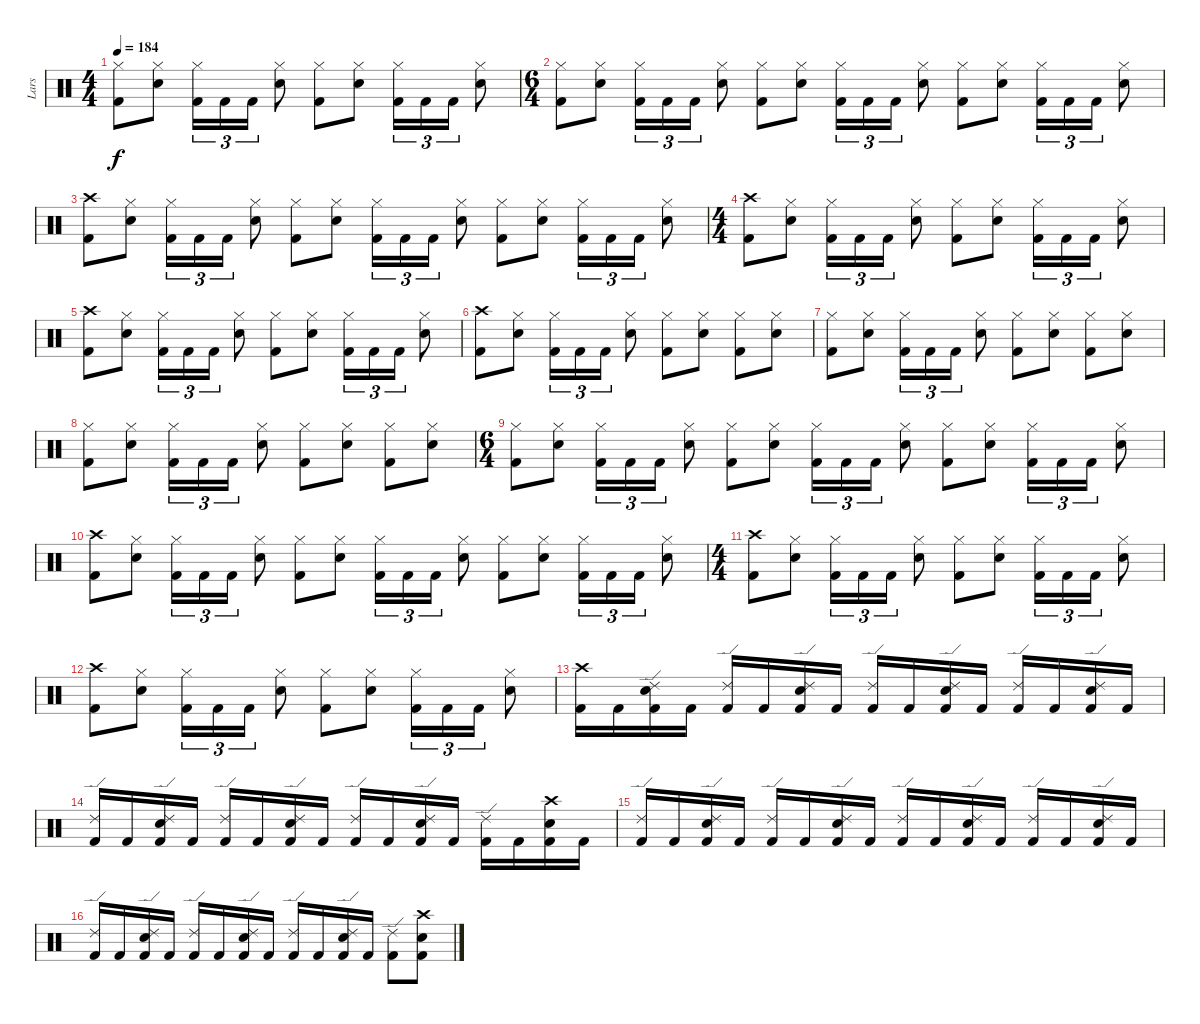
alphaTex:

\track ("Lars" "Lars") {instrument percussion}
\staff {score}
\articulation defaults
\ts (4 4)
\tempo 184
\clef neutral
\ks c
("Hi-Hat (closed)" "Kick (hit) 2").8{dy f} ("Hi-Hat (closed)" "Snare (hit) 2").8 ("Hi-Hat (closed)" "Kick (hit) 2").16{tu (3 2)} "Kick (hit) 2".16{tu (3 2)} "Kick (hit) 2".16{tu (3 2)} ("Hi-Hat (closed)" "Snare (hit) 2").8 ("Hi-Hat (closed)" "Kick (hit) 2").8 ("Hi-Hat (closed)" "Snare (hit) 2").8 ("Hi-Hat (closed)" "Kick (hit) 2").16{tu (3 2)} "Kick (hit) 2".16{tu (3 2)} "Kick (hit) 2".16{tu (3 2)} ("Hi-Hat (closed)" "Snare (hit) 2").8 |
\ts (6 4)
("Hi-Hat (closed)" "Kick (hit) 2").8 ("Hi-Hat (closed)" "Snare (hit) 2").8 ("Hi-Hat (closed)" "Kick (hit) 2").16{tu (3 2)} "Kick (hit) 2".16{tu (3 2)} "Kick (hit) 2".16{tu (3 2)} ("Hi-Hat (closed)" "Snare (hit) 2").8 ("Hi-Hat (closed)" "Kick (hit) 2").8 ("Hi-Hat (closed)" "Snare (hit) 2").8 ("Hi-Hat (closed)" "Kick (hit) 2").16{tu (3 2)} "Kick (hit) 2".16{tu (3 2)} "Kick (hit) 2".16{tu (3 2)} ("Hi-Hat (closed)" "Snare (hit) 2").8 ("Hi-Hat (closed)" "Kick (hit) 2").8 ("Hi-Hat (closed)" "Snare (hit) 2").8 ("Hi-Hat (closed)" "Kick (hit) 2").16{tu (3 2)} "Kick (hit) 2".16{tu (3 2)} "Kick (hit) 2".16{tu (3 2)} ("Hi-Hat (closed)" "Snare (hit) 2").8 |
("Crash high (hit)" "Kick (hit) 2").8 ("Hi-Hat (closed)" "Snare (hit) 2").8 ("Hi-Hat (closed)" "Kick (hit) 2").16{tu (3 2)} "Kick (hit) 2".16{tu (3 2)} "Kick (hit) 2".16{tu (3 2)} ("Hi-Hat (closed)" "Snare (hit) 2").8 ("Hi-Hat (closed)" "Kick (hit) 2").8 ("Hi-Hat (closed)" "Snare (hit) 2").8 ("Hi-Hat (closed)" "Kick (hit) 2").16{tu (3 2)} "Kick (hit) 2".16{tu (3 2)} "Kick (hit) 2".16{tu (3 2)} ("Hi-Hat (closed)" "Snare (hit) 2").8 ("Hi-Hat (closed)" "Kick (hit) 2").8 ("Hi-Hat (closed)" "Snare (hit) 2").8 ("Hi-Hat (closed)" "Kick (hit) 2").16{tu (3 2)} "Kick (hit) 2".16{tu (3 2)} "Kick (hit) 2".16{tu (3 2)} ("Hi-Hat (closed)" "Snare (hit) 2").8 |
\ts (4 4)
("Crash high (hit)" "Kick (hit) 2").8 ("Hi-Hat (closed)" "Snare (hit) 2").8 ("Hi-Hat (closed)" "Kick (hit) 2").16{tu (3 2)} "Kick (hit) 2".16{tu (3 2)} "Kick (hit) 2".16{tu (3 2)} ("Hi-Hat (closed)" "Snare (hit) 2").8 ("Hi-Hat (closed)" "Kick (hit) 2").8 ("Hi-Hat (closed)" "Snare (hit) 2").8 ("Hi-Hat (closed)" "Kick (hit) 2").16{tu (3 2)} "Kick (hit) 2".16{tu (3 2)} "Kick (hit) 2".16{tu (3 2)} ("Hi-Hat (closed)" "Snare (hit) 2").8 |
("Crash high (hit)" "Kick (hit) 2").8 ("Hi-Hat (closed)" "Snare (hit) 2").8 ("Hi-Hat (closed)" "Kick (hit) 2").16{tu (3 2)} "Kick (hit) 2".16{tu (3 2)} "Kick (hit) 2".16{tu (3 2)} ("Hi-Hat (closed)" "Snare (hit) 2").8 ("Hi-Hat (closed)" "Kick (hit) 2").8 ("Hi-Hat (closed)" "Snare (hit) 2").8 ("Hi-Hat (closed)" "Kick (hit) 2").16{tu (3 2)} "Kick (hit) 2".16{tu (3 2)} "Kick (hit) 2".16{tu (3 2)} ("Hi-Hat (closed)" "Snare (hit) 2").8 |
("Crash high (hit)" "Kick (hit) 2").8 ("Hi-Hat (closed)" "Snare (hit) 2").8 ("Hi-Hat (closed)" "Kick (hit) 2").16{tu (3 2)} "Kick (hit) 2".16{tu (3 2)} "Kick (hit) 2".16{tu (3 2)} ("Hi-Hat (closed)" "Snare (hit) 2").8 ("Hi-Hat (closed)" "Kick (hit) 2").8 ("Hi-Hat (closed)" "Snare (hit) 2").8 ("Hi-Hat (closed)" "Kick (hit) 2").8 ("Hi-Hat (closed)" "Snare (hit) 2").8 |
("Hi-Hat (closed)" "Kick (hit) 2").8 ("Hi-Hat (closed)" "Snare (hit) 2").8 ("Hi-Hat (closed)" "Kick (hit) 2").16{tu (3 2)} "Kick (hit) 2".16{tu (3 2)} "Kick (hit) 2".16{tu (3 2)} ("Hi-Hat (closed)" "Snare (hit) 2").8 ("Hi-Hat (closed)" "Kick (hit) 2").8 ("Hi-Hat (closed)" "Snare (hit) 2").8 ("Hi-Hat (closed)" "Kick (hit) 2").8 ("Hi-Hat (closed)" "Snare (hit) 2").8 |
("Hi-Hat (closed)" "Kick (hit) 2").8 ("Hi-Hat (closed)" "Snare (hit) 2").8 ("Hi-Hat (closed)" "Kick (hit) 2").16{tu (3 2)} "Kick (hit) 2".16{tu (3 2)} "Kick (hit) 2".16{tu (3 2)} ("Hi-Hat (closed)" "Snare (hit) 2").8 ("Hi-Hat (closed)" "Kick (hit) 2").8 ("Hi-Hat (closed)" "Snare (hit) 2").8 ("Hi-Hat (closed)" "Kick (hit) 2").8 ("Hi-Hat (closed)" "Snare (hit) 2").8 |
\ts (6 4)
("Hi-Hat (closed)" "Kick (hit) 2").8 ("Hi-Hat (closed)" "Snare (hit) 2").8 ("Hi-Hat (closed)" "Kick (hit) 2").16{tu (3 2)} "Kick (hit) 2".16{tu (3 2)} "Kick (hit) 2".16{tu (3 2)} ("Hi-Hat (closed)" "Snare (hit) 2").8 ("Hi-Hat (closed)" "Kick (hit) 2").8 ("Hi-Hat (closed)" "Snare (hit) 2").8 ("Hi-Hat (closed)" "Kick (hit) 2").16{tu (3 2)} "Kick (hit) 2".16{tu (3 2)} "Kick (hit) 2".16{tu (3 2)} ("Hi-Hat (closed)" "Snare (hit) 2").8 ("Hi-Hat (closed)" "Kick (hit) 2").8 ("Hi-Hat (closed)" "Snare (hit) 2").8 ("Hi-Hat (closed)" "Kick (hit) 2").16{tu (3 2)} "Kick (hit) 2".16{tu (3 2)} "Kick (hit) 2".16{tu (3 2)} ("Hi-Hat (closed)" "Snare (hit) 2").8 |
("Crash high (hit)" "Kick (hit) 2").8 ("Hi-Hat (closed)" "Snare (hit) 2").8 ("Hi-Hat (closed)" "Kick (hit) 2").16{tu (3 2)} "Kick (hit) 2".16{tu (3 2)} "Kick (hit) 2".16{tu (3 2)} ("Hi-Hat (closed)" "Snare (hit) 2").8 ("Hi-Hat (closed)" "Kick (hit) 2").8 ("Hi-Hat (closed)" "Snare (hit) 2").8 ("Hi-Hat (closed)" "Kick (hit) 2").16{tu (3 2)} "Kick (hit) 2".16{tu (3 2)} "Kick (hit) 2".16{tu (3 2)} ("Hi-Hat (closed)" "Snare (hit) 2").8 ("Hi-Hat (closed)" "Kick (hit) 2").8 ("Hi-Hat (closed)" "Snare (hit) 2").8 ("Hi-Hat (closed)" "Kick (hit) 2").16{tu (3 2)} "Kick (hit) 2".16{tu (3 2)} "Kick (hit) 2".16{tu (3 2)} ("Hi-Hat (closed)" "Snare (hit) 2").8 |
\ts (4 4)
("Crash high (hit)" "Kick (hit) 2").8 ("Hi-Hat (closed)" "Snare (hit) 2").8 ("Hi-Hat (closed)" "Kick (hit) 2").16{tu (3 2)} "Kick (hit) 2".16{tu (3 2)} "Kick (hit) 2".16{tu (3 2)} ("Hi-Hat (closed)" "Snare (hit) 2").8 ("Hi-Hat (closed)" "Kick (hit) 2").8 ("Hi-Hat (closed)" "Snare (hit) 2").8 ("Hi-Hat (closed)" "Kick (hit) 2").16{tu (3 2)} "Kick (hit) 2".16{tu (3 2)} "Kick (hit) 2".16{tu (3 2)} ("Hi-Hat (closed)" "Snare (hit) 2").8 |
("Crash high (hit)" "Kick (hit) 2").8 ("Hi-Hat (closed)" "Snare (hit) 2").8 ("Hi-Hat (closed)" "Kick (hit) 2").16{tu (3 2)} "Kick (hit) 2".16{tu (3 2)} "Kick (hit) 2".16{tu (3 2)} ("Hi-Hat (closed)" "Snare (hit) 2").8 ("Hi-Hat (closed)" "Kick (hit) 2").8 ("Hi-Hat (closed)" "Snare (hit) 2").8 ("Hi-Hat (closed)" "Kick (hit) 2").16{tu (3 2)} "Kick (hit) 2".16{tu (3 2)} "Kick (hit) 2".16{tu (3 2)} ("Hi-Hat (closed)" "Snare (hit) 2").8 |
("Crash high (hit)" "Kick (hit) 2").16 "Kick (hit) 2".16 ("Ride (edge) 2" "Snare (hit) 2" "Kick (hit) 2").16 "Kick (hit) 2".16 ("Ride (edge) 2" "Kick (hit) 2").16 "Kick (hit) 2".16 ("Ride (edge) 2" "Snare (hit) 2" "Kick (hit) 2").16 "Kick (hit) 2".16 ("Ride (edge) 2" "Kick (hit) 2").16 "Kick (hit) 2".16 ("Ride (edge) 2" "Snare (hit) 2" "Kick (hit) 2").16 "Kick (hit) 2".16 ("Ride (edge) 2" "Kick (hit) 2").16 "Kick (hit) 2".16 ("Ride (edge) 2" "Snare (hit) 2" "Kick (hit) 2").16 "Kick (hit) 2".16 |
("Ride (edge) 2" "Kick (hit) 2").16 "Kick (hit) 2".16 ("Ride (edge) 2" "Snare (hit) 2" "Kick (hit) 2").16 "Kick (hit) 2".16 ("Ride (edge) 2" "Kick (hit) 2").16 "Kick (hit) 2".16 ("Ride (edge) 2" "Snare (hit) 2" "Kick (hit) 2").16 "Kick (hit) 2".16 ("Ride (edge) 2" "Kick (hit) 2").16 "Kick (hit) 2".16 ("Ride (edge) 2" "Snare (hit) 2" "Kick (hit) 2").16 "Kick (hit) 2".16 ("Ride (edge) 2" "Kick (hit) 2").16 "Kick (hit) 2".16 ("Crash high (hit)" "Snare (hit) 2" "Kick (hit) 2").16 "Kick (hit) 2".16 |
("Ride (edge) 2" "Kick (hit) 2").16 "Kick (hit) 2".16 ("Ride (edge) 2" "Snare (hit) 2" "Kick (hit) 2").16 "Kick (hit) 2".16 ("Ride (edge) 2" "Kick (hit) 2").16 "Kick (hit) 2".16 ("Ride (edge) 2" "Snare (hit) 2" "Kick (hit) 2").16 "Kick (hit) 2".16 ("Ride (edge) 2" "Kick (hit) 2").16 "Kick (hit) 2".16 ("Ride (edge) 2" "Snare (hit) 2" "Kick (hit) 2").16 "Kick (hit) 2".16 ("Ride (edge) 2" "Kick (hit) 2").16 "Kick (hit) 2".16 ("Ride (edge) 2" "Snare (hit) 2" "Kick (hit) 2").16 "Kick (hit) 2".16 |
("Ride (edge) 2" "Kick (hit) 2").16 "Kick (hit) 2".16 ("Ride (edge) 2" "Snare (hit) 2" "Kick (hit) 2").16 "Kick (hit) 2".16 ("Ride (edge) 2" "Kick (hit) 2").16 "Kick (hit) 2".16 ("Ride (edge) 2" "Snare (hit) 2" "Kick (hit) 2").16 "Kick (hit) 2".16 ("Ride (edge) 2" "Kick (hit) 2").16 "Kick (hit) 2".16 ("Ride (edge) 2" "Snare (hit) 2" "Kick (hit) 2").16 "Kick (hit) 2".16 ("Ride (edge) 2" "Kick (hit) 2").8 ("Crash high (hit)" "Snare (hit) 2" "Kick (hit) 2").8
